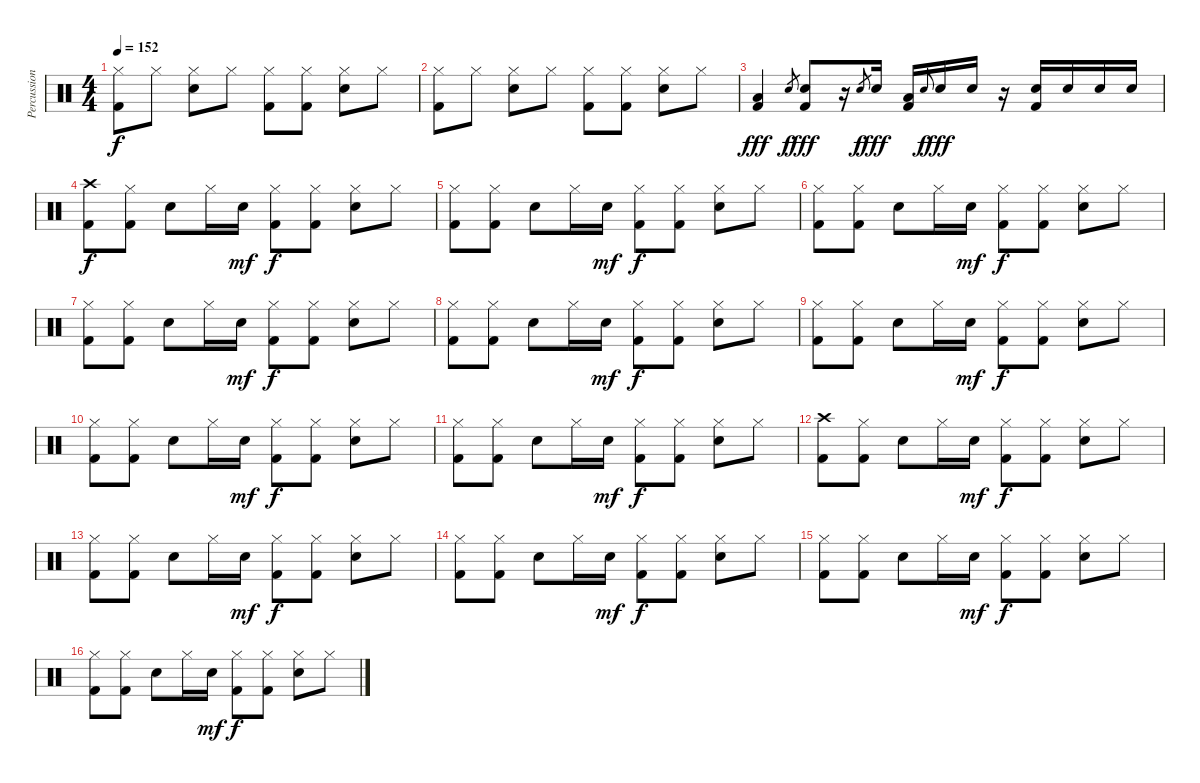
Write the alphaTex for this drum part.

\track ("Percussion" "Percussion") {instrument percussion}
\staff {score}
\articulation defaults
\ts (4 4)
\tempo 152
\clef neutral
\ks c
("Kick (hit) 2" "Hi-Hat (closed)").8{dy f} "Hi-Hat (closed)".8 ("Electric Snare (hit)" "Hi-Hat (closed)").8 "Hi-Hat (closed)".8 ("Kick (hit) 2" "Hi-Hat (closed)").8 ("Kick (hit) 2" "Hi-Hat (closed)").8 ("Electric Snare (hit)" "Hi-Hat (closed)").8 "Hi-Hat (closed)".8 |
("Kick (hit) 2" "Hi-Hat (closed)").8 "Hi-Hat (closed)".8 ("Electric Snare (hit)" "Hi-Hat (closed)").8 "Hi-Hat (closed)".8 ("Kick (hit) 2" "Hi-Hat (closed)").8 ("Kick (hit) 2" "Hi-Hat (closed)").8 ("Electric Snare (hit)" "Hi-Hat (closed)").8 "Hi-Hat (closed)".8 |
("Kick (hit) 2" "Low Tom (hit)").4{dy fff} "Snare (hit) 2".8{gr dy f} ("Snare (hit) 2" "Kick (hit) 2").8{dy fff} r.16 "Snare (hit) 2".8{gr dy f} "Snare (hit) 2".16{dy fff} ("Low Floor Tom (hit)" "Kick (hit) 2").16 "Snare (hit) 2".8{gr onbeat dy f} "Snare (hit) 2".16{dy fff} "Snare (hit) 2".16 r.16 ("Snare (hit) 2" "Kick (hit) 2").16 "Snare (hit) 2".16 "Snare (hit) 2".16 "Snare (hit) 2".16 |
("Kick (hit) 2" "Crash high (hit)").8{dy f} ("Kick (hit) 2" "Hi-Hat (closed)").8 "Electric Snare (hit)".8 "Hi-Hat (closed)".16 "Electric Snare (hit)".16{dy mf} ("Kick (hit) 2" "Hi-Hat (closed)").8{dy f} ("Kick (hit) 2" "Hi-Hat (closed)").8 ("Electric Snare (hit)" "Hi-Hat (closed)").8 "Hi-Hat (closed)".8 |
("Kick (hit) 2" "Hi-Hat (closed)").8 ("Kick (hit) 2" "Hi-Hat (closed)").8 "Electric Snare (hit)".8 "Hi-Hat (closed)".16 "Electric Snare (hit)".16{dy mf} ("Kick (hit) 2" "Hi-Hat (closed)").8{dy f} ("Kick (hit) 2" "Hi-Hat (closed)").8 ("Electric Snare (hit)" "Hi-Hat (closed)").8 "Hi-Hat (closed)".8 |
("Kick (hit) 2" "Hi-Hat (closed)").8 ("Kick (hit) 2" "Hi-Hat (closed)").8 "Electric Snare (hit)".8 "Hi-Hat (closed)".16 "Electric Snare (hit)".16{dy mf} ("Kick (hit) 2" "Hi-Hat (closed)").8{dy f} ("Kick (hit) 2" "Hi-Hat (closed)").8 ("Electric Snare (hit)" "Hi-Hat (closed)").8 "Hi-Hat (closed)".8 |
("Kick (hit) 2" "Hi-Hat (closed)").8 ("Kick (hit) 2" "Hi-Hat (closed)").8 "Electric Snare (hit)".8 "Hi-Hat (closed)".16 "Electric Snare (hit)".16{dy mf} ("Kick (hit) 2" "Hi-Hat (closed)").8{dy f} ("Kick (hit) 2" "Hi-Hat (closed)").8 ("Electric Snare (hit)" "Hi-Hat (closed)").8 "Hi-Hat (closed)".8 |
("Kick (hit) 2" "Hi-Hat (closed)").8 ("Kick (hit) 2" "Hi-Hat (closed)").8 "Electric Snare (hit)".8 "Hi-Hat (closed)".16 "Electric Snare (hit)".16{dy mf} ("Kick (hit) 2" "Hi-Hat (closed)").8{dy f} ("Kick (hit) 2" "Hi-Hat (closed)").8 ("Electric Snare (hit)" "Hi-Hat (closed)").8 "Hi-Hat (closed)".8 |
("Kick (hit) 2" "Hi-Hat (closed)").8 ("Kick (hit) 2" "Hi-Hat (closed)").8 "Electric Snare (hit)".8 "Hi-Hat (closed)".16 "Electric Snare (hit)".16{dy mf} ("Kick (hit) 2" "Hi-Hat (closed)").8{dy f} ("Kick (hit) 2" "Hi-Hat (closed)").8 ("Electric Snare (hit)" "Hi-Hat (closed)").8 "Hi-Hat (closed)".8 |
("Kick (hit) 2" "Hi-Hat (closed)").8 ("Kick (hit) 2" "Hi-Hat (closed)").8 "Electric Snare (hit)".8 "Hi-Hat (closed)".16 "Electric Snare (hit)".16{dy mf} ("Kick (hit) 2" "Hi-Hat (closed)").8{dy f} ("Kick (hit) 2" "Hi-Hat (closed)").8 ("Electric Snare (hit)" "Hi-Hat (closed)").8 "Hi-Hat (closed)".8 |
("Kick (hit) 2" "Hi-Hat (closed)").8 ("Kick (hit) 2" "Hi-Hat (closed)").8 "Electric Snare (hit)".8 "Hi-Hat (closed)".16 "Electric Snare (hit)".16{dy mf} ("Kick (hit) 2" "Hi-Hat (closed)").8{dy f} ("Kick (hit) 2" "Hi-Hat (closed)").8 ("Electric Snare (hit)" "Hi-Hat (closed)").8 "Hi-Hat (closed)".8 |
("Kick (hit) 2" "Crash high (hit)").8 ("Kick (hit) 2" "Hi-Hat (closed)").8 "Electric Snare (hit)".8 "Hi-Hat (closed)".16 "Electric Snare (hit)".16{dy mf} ("Kick (hit) 2" "Hi-Hat (closed)").8{dy f} ("Kick (hit) 2" "Hi-Hat (closed)").8 ("Electric Snare (hit)" "Hi-Hat (closed)").8 "Hi-Hat (closed)".8 |
("Kick (hit) 2" "Hi-Hat (closed)").8 ("Kick (hit) 2" "Hi-Hat (closed)").8 "Electric Snare (hit)".8 "Hi-Hat (closed)".16 "Electric Snare (hit)".16{dy mf} ("Kick (hit) 2" "Hi-Hat (closed)").8{dy f} ("Kick (hit) 2" "Hi-Hat (closed)").8 ("Electric Snare (hit)" "Hi-Hat (closed)").8 "Hi-Hat (closed)".8 |
("Kick (hit) 2" "Hi-Hat (closed)").8 ("Kick (hit) 2" "Hi-Hat (closed)").8 "Electric Snare (hit)".8 "Hi-Hat (closed)".16 "Electric Snare (hit)".16{dy mf} ("Kick (hit) 2" "Hi-Hat (closed)").8{dy f} ("Kick (hit) 2" "Hi-Hat (closed)").8 ("Electric Snare (hit)" "Hi-Hat (closed)").8 "Hi-Hat (closed)".8 |
("Kick (hit) 2" "Hi-Hat (closed)").8 ("Kick (hit) 2" "Hi-Hat (closed)").8 "Electric Snare (hit)".8 "Hi-Hat (closed)".16 "Electric Snare (hit)".16{dy mf} ("Kick (hit) 2" "Hi-Hat (closed)").8{dy f} ("Kick (hit) 2" "Hi-Hat (closed)").8 ("Electric Snare (hit)" "Hi-Hat (closed)").8 "Hi-Hat (closed)".8 |
("Kick (hit) 2" "Hi-Hat (closed)").8 ("Kick (hit) 2" "Hi-Hat (closed)").8 "Electric Snare (hit)".8 "Hi-Hat (closed)".16 "Electric Snare (hit)".16{dy mf} ("Kick (hit) 2" "Hi-Hat (closed)").8{dy f} ("Kick (hit) 2" "Hi-Hat (closed)").8 ("Electric Snare (hit)" "Hi-Hat (closed)").8 "Hi-Hat (closed)".8
